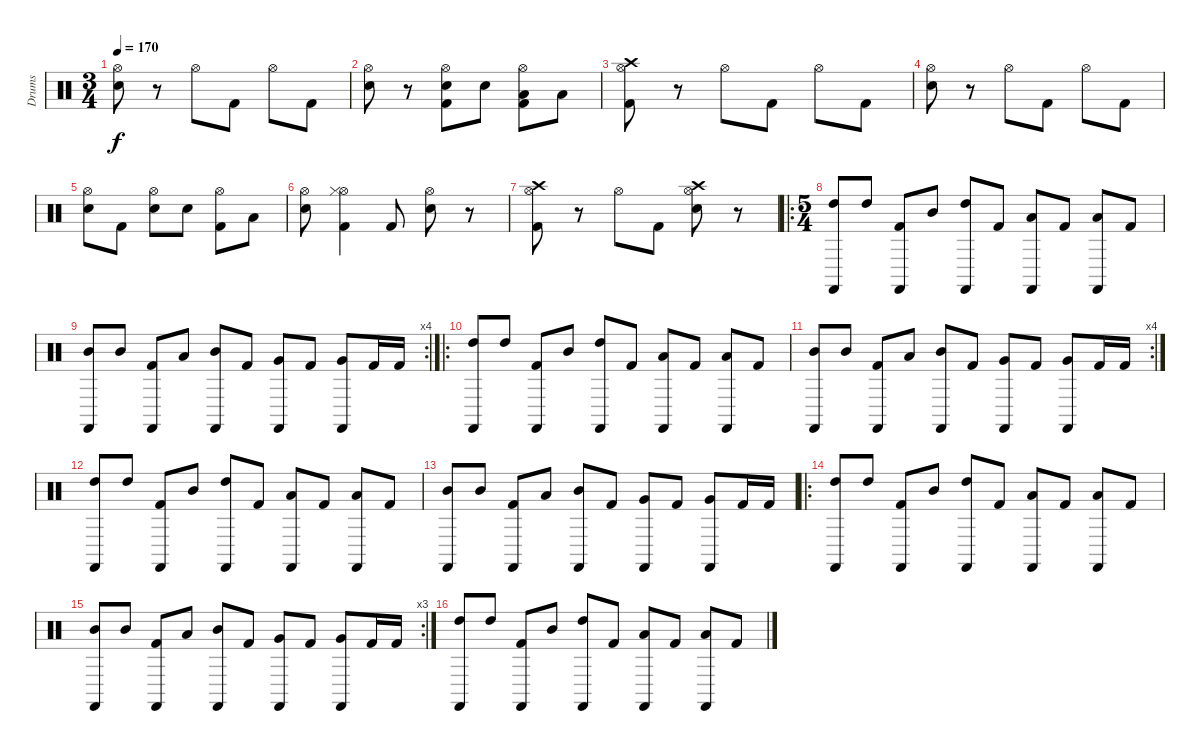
\track ("Drums" "Drums") {instrument percussion}
\staff {score}
\articulation defaults
\ts (3 4)
\tempo 170
\clef neutral
\ks c
("Hi-Hat (open)" "Electric Snare (hit)").8{dy f} r.8 "Hi-Hat (open)".8 "Kick (hit) 2".8 "Hi-Hat (open)".8 "Kick (hit) 2".8 |
("Hi-Hat (open)" "Electric Snare (hit)").8 r.8 ("Hi-Hat (open)" "Electric Snare (hit)" "Kick (hit) 2").8 "Electric Snare (hit)".8 ("Hi-Hat (open)" "Low Tom (hit)" "Kick (hit) 2").8 "Low Tom (hit)".8 |
("Hi-Hat (open)" "Crash high (hit)" "Kick (hit) 2").8 r.8 "Hi-Hat (open)".8 "Kick (hit) 2".8 "Hi-Hat (open)".8 "Kick (hit) 2".8 |
("Hi-Hat (open)" "Electric Snare (hit)").8 r.8 "Hi-Hat (open)".8 "Kick (hit) 2".8 "Hi-Hat (open)".8 "Kick (hit) 2".8 |
("Hi-Hat (open)" "Electric Snare (hit)").8 "Kick (hit) 2".8 ("Hi-Hat (open)" "Electric Snare (hit)").8 "Electric Snare (hit)".8 ("Hi-Hat (open)" "Kick (hit) 2").8 "Low Tom (hit)".8 |
("Hi-Hat (open)" "Electric Snare (hit)").8 ("Hi-Hat (open)" "Hi-Hat (closed)" "Kick (hit) 2").4 "Kick (hit) 2".8 ("Hi-Hat (open)" "Electric Snare (hit)").8 r.8 |
("Hi-Hat (open)" "Crash high (hit)" "Kick (hit) 2").8 r.8 "Hi-Hat (open)".8 "Kick (hit) 2".8 ("Hi-Hat (open)" "Electric Snare (hit)" "Crash high (hit)").8 r.8 |
\ro
\ts (5 4)
("High Tom (hit)" "Castanets (hit)").8 "High Tom (hit)".8 ("Castanets (hit)" "Kick (hit) 2").8 "Mid Tom (hit)".8 ("High Tom (hit)" "Castanets (hit)").8 "Kick (hit) 2".8 ("Low Tom (hit)" "Castanets (hit)").8 "Kick (hit) 2".8 ("Low Tom (hit)" "Castanets (hit)").8 "Kick (hit) 2".8 |
\rc 4
("Mid Tom (hit)" "Castanets (hit)").8 "Mid Tom (hit)".8 ("Castanets (hit)" "Kick (hit) 2").8 "Low Tom (hit)".8 ("Mid Tom (hit)" "Castanets (hit)").8 "Kick (hit) 2".8 ("Very Low Tom (hit)" "Castanets (hit)").8 "Kick (hit) 2".8 ("Very Low Tom (hit)" "Castanets (hit)").8 "Kick (hit) 2".16 "Kick (hit) 2".16 |
\ro
("High Tom (hit)" "Castanets (hit)").8 "High Tom (hit)".8 ("Castanets (hit)" "Kick (hit) 2").8 "Mid Tom (hit)".8 ("High Tom (hit)" "Castanets (hit)").8 "Kick (hit) 2".8 ("Low Tom (hit)" "Castanets (hit)").8 "Kick (hit) 2".8 ("Low Tom (hit)" "Castanets (hit)").8 "Kick (hit) 2".8 |
\rc 4
("Mid Tom (hit)" "Castanets (hit)").8 "Mid Tom (hit)".8 ("Castanets (hit)" "Kick (hit) 2").8 "Low Tom (hit)".8 ("Mid Tom (hit)" "Castanets (hit)").8 "Kick (hit) 2".8 ("Very Low Tom (hit)" "Castanets (hit)").8 "Kick (hit) 2".8 ("Very Low Tom (hit)" "Castanets (hit)").8 "Kick (hit) 2".16 "Kick (hit) 2".16 |
("High Tom (hit)" "Castanets (hit)").8 "High Tom (hit)".8 ("Castanets (hit)" "Kick (hit) 2").8 "Mid Tom (hit)".8 ("High Tom (hit)" "Castanets (hit)").8 "Kick (hit) 2".8 ("Low Tom (hit)" "Castanets (hit)").8 "Kick (hit) 2".8 ("Low Tom (hit)" "Castanets (hit)").8 "Kick (hit) 2".8 |
("Mid Tom (hit)" "Castanets (hit)").8 "Mid Tom (hit)".8 ("Castanets (hit)" "Kick (hit) 2").8 "Low Tom (hit)".8 ("Mid Tom (hit)" "Castanets (hit)").8 "Kick (hit) 2".8 ("Very Low Tom (hit)" "Castanets (hit)").8 "Kick (hit) 2".8 ("Very Low Tom (hit)" "Castanets (hit)").8 "Kick (hit) 2".16 "Kick (hit) 2".16 |
\ro
("High Tom (hit)" "Castanets (hit)").8 "High Tom (hit)".8 ("Castanets (hit)" "Kick (hit) 2").8 "Mid Tom (hit)".8 ("High Tom (hit)" "Castanets (hit)").8 "Kick (hit) 2".8 ("Low Tom (hit)" "Castanets (hit)").8 "Kick (hit) 2".8 ("Low Tom (hit)" "Castanets (hit)").8 "Kick (hit) 2".8 |
\rc 3
("Mid Tom (hit)" "Castanets (hit)").8 "Mid Tom (hit)".8 ("Castanets (hit)" "Kick (hit) 2").8 "Low Tom (hit)".8 ("Mid Tom (hit)" "Castanets (hit)").8 "Kick (hit) 2".8 ("Very Low Tom (hit)" "Castanets (hit)").8 "Kick (hit) 2".8 ("Very Low Tom (hit)" "Castanets (hit)").8 "Kick (hit) 2".16 "Kick (hit) 2".16 |
("High Tom (hit)" "Castanets (hit)").8 "High Tom (hit)".8 ("Castanets (hit)" "Kick (hit) 2").8 "Mid Tom (hit)".8 ("High Tom (hit)" "Castanets (hit)").8 "Kick (hit) 2".8 ("Low Tom (hit)" "Castanets (hit)").8 "Kick (hit) 2".8 ("Low Tom (hit)" "Castanets (hit)").8 "Kick (hit) 2".8
